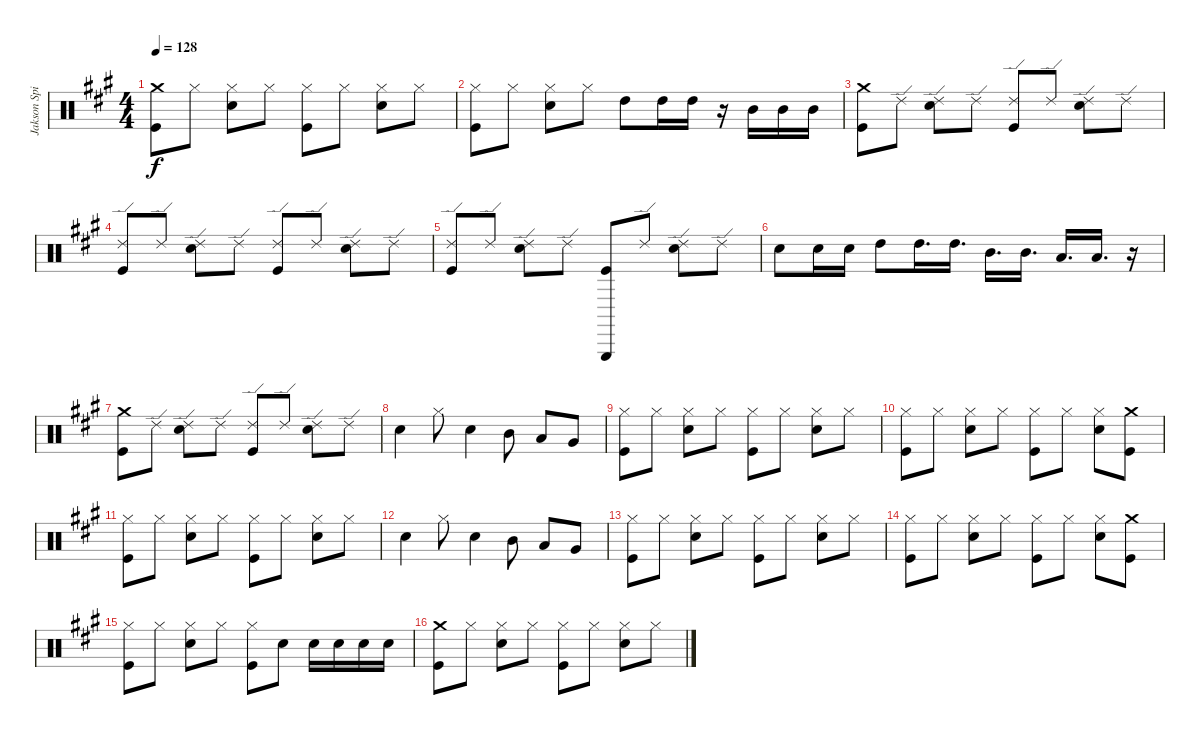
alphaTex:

\track ("Jakson Spires Drums" "Jakson Spi") {instrument percussion}
\staff {score}
\articulation defaults
\ts (4 4)
\tempo 128
\clef neutral
\ks a
("Crash medium (hit)" "Kick (hit)").8{dy f} "Hi-Hat (closed)".8 ("Hi-Hat (closed)" "Snare (hit) 2").8 "Hi-Hat (closed)".8 ("Hi-Hat (closed)" "Kick (hit)").8 "Hi-Hat (closed)".8 ("Hi-Hat (closed)" "Snare (hit) 2").8 "Hi-Hat (closed)".8 |
("Hi-Hat (closed)" "Kick (hit)").8 "Hi-Hat (closed)".8 ("Hi-Hat (closed)" "Snare (hit) 2").8 "Hi-Hat (closed)".8 "High Tom (hit)".8 "High Tom (hit)".16 "High Tom (hit)".16 r.16 "Mid Tom (hit)".16 "Mid Tom (hit)".16 "Mid Tom (hit)".16 |
("Crash medium (hit)" "Kick (hit)").8 "Ride (edge) 2".8 ("Ride (edge) 2" "Snare (hit) 2").8 "Ride (edge) 2".8 ("Ride (edge) 2" "Kick (hit)").8 "Ride (edge) 2".8 ("Ride (edge) 2" "Snare (hit) 2").8 "Ride (edge) 2".8 |
("Ride (edge) 2" "Kick (hit)").8 "Ride (edge) 2".8 ("Ride (edge) 2" "Snare (hit) 2").8 "Ride (edge) 2".8 ("Ride (edge) 2" "Kick (hit)").8 "Ride (edge) 2".8 ("Ride (edge) 2" "Snare (hit) 2").8 "Ride (edge) 2".8 |
("Ride (edge) 2" "Kick (hit)").8 "Ride (edge) 2".8 ("Ride (edge) 2" "Snare (hit) 2").8 "Ride (edge) 2".8 ("Triangle (hit)" "Kick (hit)").8 "Ride (edge) 2".8 ("Ride (edge) 2" "Snare (hit) 2").8 "Ride (edge) 2".8 |
"Snare (hit) 2".8 "Snare (hit) 2".16 "Snare (hit) 2".16 "High Tom (hit)".8 "High Tom (hit)".16{d} "High Tom (hit)".16{d} "Mid Tom (hit)".16{d} "Mid Tom (hit)".16{d} "Low Tom (hit)".16{d} "Low Tom (hit)".16{d} r.16 |
("Crash medium (hit)" "Kick (hit)").8 "Ride (edge) 2".8 ("Ride (edge) 2" "Snare (hit) 2").8 "Ride (edge) 2".8 ("Ride (edge) 2" "Kick (hit)").8 "Ride (edge) 2".8 ("Ride (edge) 2" "Snare (hit) 2").8 "Ride (edge) 2".8 |
"Snare (hit) 2".4 "Hi-Hat (closed)".8 "Snare (hit) 2".4 "Mid Tom (hit)".8 "Low Tom (hit)".8 "Very Low Tom (hit)".8 |
("Hi-Hat (closed)" "Kick (hit)").8 "Hi-Hat (closed)".8 ("Hi-Hat (closed)" "Snare (hit) 2").8 "Hi-Hat (closed)".8 ("Hi-Hat (closed)" "Kick (hit)").8 "Hi-Hat (closed)".8 ("Hi-Hat (closed)" "Snare (hit) 2").8 "Hi-Hat (closed)".8 |
("Hi-Hat (closed)" "Kick (hit)").8 "Hi-Hat (closed)".8 ("Hi-Hat (closed)" "Snare (hit) 2").8 "Hi-Hat (closed)".8 ("Hi-Hat (closed)" "Kick (hit)").8 "Hi-Hat (closed)".8 ("Hi-Hat (closed)" "Snare (hit) 2").8 ("Crash medium (hit)" "Kick (hit)").8 |
("Hi-Hat (closed)" "Kick (hit)").8 "Hi-Hat (closed)".8 ("Hi-Hat (closed)" "Snare (hit) 2").8 "Hi-Hat (closed)".8 ("Hi-Hat (closed)" "Kick (hit)").8 "Hi-Hat (closed)".8 ("Hi-Hat (closed)" "Snare (hit) 2").8 "Hi-Hat (closed)".8 |
"Snare (hit) 2".4 "Hi-Hat (closed)".8 "Snare (hit) 2".4 "Mid Tom (hit)".8 "Low Tom (hit)".8 "Very Low Tom (hit)".8 |
("Hi-Hat (closed)" "Kick (hit)").8 "Hi-Hat (closed)".8 ("Hi-Hat (closed)" "Snare (hit) 2").8 "Hi-Hat (closed)".8 ("Hi-Hat (closed)" "Kick (hit)").8 "Hi-Hat (closed)".8 ("Hi-Hat (closed)" "Snare (hit) 2").8 "Hi-Hat (closed)".8 |
("Hi-Hat (closed)" "Kick (hit)").8 "Hi-Hat (closed)".8 ("Hi-Hat (closed)" "Snare (hit) 2").8 "Hi-Hat (closed)".8 ("Hi-Hat (closed)" "Kick (hit)").8 "Hi-Hat (closed)".8 ("Hi-Hat (closed)" "Snare (hit) 2").8 ("Crash medium (hit)" "Kick (hit)").8 |
("Hi-Hat (closed)" "Kick (hit)").8 "Hi-Hat (closed)".8 ("Hi-Hat (closed)" "Snare (hit) 2").8 "Hi-Hat (closed)".8 ("Hi-Hat (closed)" "Kick (hit)").8 "Snare (hit) 2".8 "Snare (hit) 2".16 "Snare (hit) 2".16 "Snare (hit) 2".16 "Snare (hit) 2".16 |
("Crash medium (hit)" "Kick (hit)").8 "Hi-Hat (closed)".8 ("Hi-Hat (closed)" "Snare (hit) 2").8 "Hi-Hat (closed)".8 ("Hi-Hat (closed)" "Kick (hit)").8 "Hi-Hat (closed)".8 ("Hi-Hat (closed)" "Snare (hit) 2").8 "Hi-Hat (closed)".8
